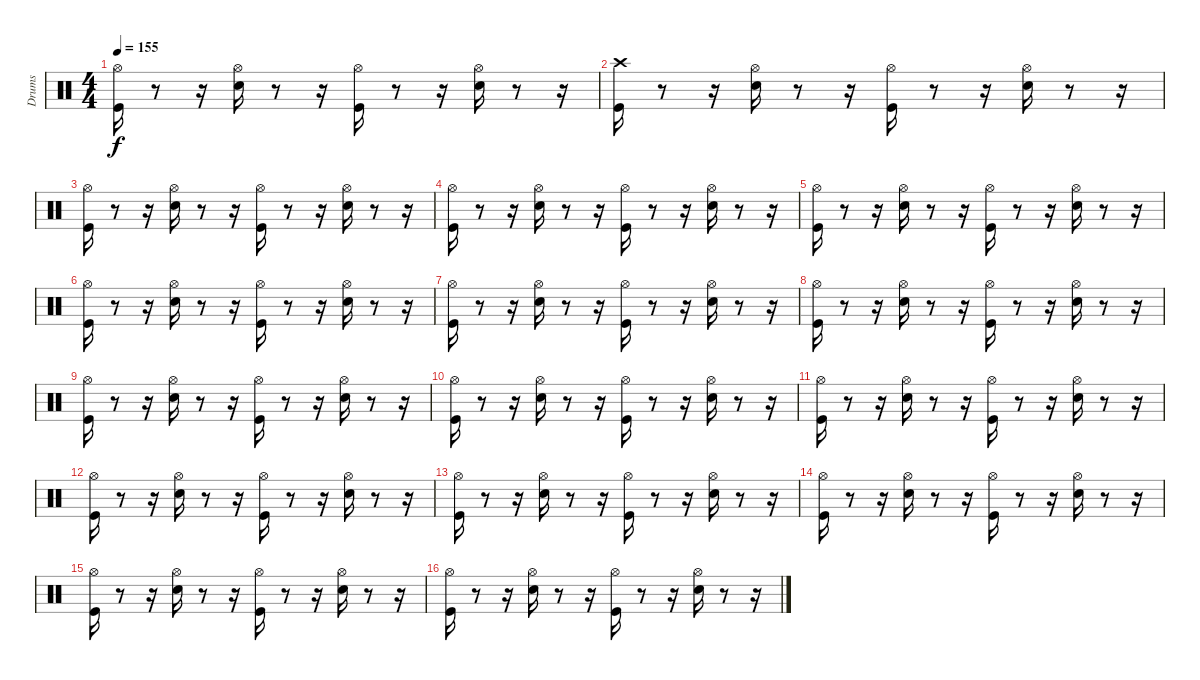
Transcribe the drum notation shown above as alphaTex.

\track ("Drums" "Drums") {instrument percussion}
\staff {score}
\articulation defaults
\ts (4 4)
\tempo 155
\clef neutral
\ks c
("Hi-Hat (open)" "Kick (hit)").16{dy f} r.8 r.16 ("Hi-Hat (open)" "Snare (hit) 2").16 r.8 r.16 ("Kick (hit)" "Hi-Hat (open)").16 r.8 r.16 ("Snare (hit) 2" "Hi-Hat (open)").16 r.8 r.16 |
("Crash high (hit)" "Kick (hit)").16 r.8 r.16 ("Hi-Hat (open)" "Snare (hit) 2").16 r.8 r.16 ("Kick (hit)" "Hi-Hat (open)").16 r.8 r.16 ("Snare (hit) 2" "Hi-Hat (open)").16 r.8 r.16 |
("Hi-Hat (open)" "Kick (hit)").16 r.8 r.16 ("Hi-Hat (open)" "Snare (hit) 2").16 r.8 r.16 ("Kick (hit)" "Hi-Hat (open)").16 r.8 r.16 ("Snare (hit) 2" "Hi-Hat (open)").16 r.8 r.16 |
("Hi-Hat (open)" "Kick (hit)").16 r.8 r.16 ("Hi-Hat (open)" "Snare (hit) 2").16 r.8 r.16 ("Kick (hit)" "Hi-Hat (open)").16 r.8 r.16 ("Snare (hit) 2" "Hi-Hat (open)").16 r.8 r.16 |
("Hi-Hat (open)" "Kick (hit)").16 r.8 r.16 ("Hi-Hat (open)" "Snare (hit) 2").16 r.8 r.16 ("Kick (hit)" "Hi-Hat (open)").16 r.8 r.16 ("Snare (hit) 2" "Hi-Hat (open)").16 r.8 r.16 |
("Hi-Hat (open)" "Kick (hit)").16 r.8 r.16 ("Hi-Hat (open)" "Snare (hit) 2").16 r.8 r.16 ("Kick (hit)" "Hi-Hat (open)").16 r.8 r.16 ("Snare (hit) 2" "Hi-Hat (open)").16 r.8 r.16 |
("Hi-Hat (open)" "Kick (hit)").16 r.8 r.16 ("Hi-Hat (open)" "Snare (hit) 2").16 r.8 r.16 ("Kick (hit)" "Hi-Hat (open)").16 r.8 r.16 ("Snare (hit) 2" "Hi-Hat (open)").16 r.8 r.16 |
("Hi-Hat (open)" "Kick (hit)").16 r.8 r.16 ("Hi-Hat (open)" "Snare (hit) 2").16 r.8 r.16 ("Kick (hit)" "Hi-Hat (open)").16 r.8 r.16 ("Snare (hit) 2" "Hi-Hat (open)").16 r.8 r.16 |
("Hi-Hat (open)" "Kick (hit)").16 r.8 r.16 ("Hi-Hat (open)" "Snare (hit) 2").16 r.8 r.16 ("Kick (hit)" "Hi-Hat (open)").16 r.8 r.16 ("Snare (hit) 2" "Hi-Hat (open)").16 r.8 r.16 |
("Hi-Hat (open)" "Kick (hit)").16 r.8 r.16 ("Hi-Hat (open)" "Snare (hit) 2").16 r.8 r.16 ("Kick (hit)" "Hi-Hat (open)").16 r.8 r.16 ("Snare (hit) 2" "Hi-Hat (open)").16 r.8 r.16 |
("Hi-Hat (open)" "Kick (hit)").16 r.8 r.16 ("Hi-Hat (open)" "Snare (hit) 2").16 r.8 r.16 ("Kick (hit)" "Hi-Hat (open)").16 r.8 r.16 ("Snare (hit) 2" "Hi-Hat (open)").16 r.8 r.16 |
("Hi-Hat (open)" "Kick (hit)").16 r.8 r.16 ("Hi-Hat (open)" "Snare (hit) 2").16 r.8 r.16 ("Kick (hit)" "Hi-Hat (open)").16 r.8 r.16 ("Snare (hit) 2" "Hi-Hat (open)").16 r.8 r.16 |
("Hi-Hat (open)" "Kick (hit)").16 r.8 r.16 ("Hi-Hat (open)" "Snare (hit) 2").16 r.8 r.16 ("Kick (hit)" "Hi-Hat (open)").16 r.8 r.16 ("Snare (hit) 2" "Hi-Hat (open)").16 r.8 r.16 |
("Hi-Hat (open)" "Kick (hit)").16 r.8 r.16 ("Hi-Hat (open)" "Snare (hit) 2").16 r.8 r.16 ("Kick (hit)" "Hi-Hat (open)").16 r.8 r.16 ("Snare (hit) 2" "Hi-Hat (open)").16 r.8 r.16 |
("Hi-Hat (open)" "Kick (hit)").16 r.8 r.16 ("Hi-Hat (open)" "Snare (hit) 2").16 r.8 r.16 ("Kick (hit)" "Hi-Hat (open)").16 r.8 r.16 ("Snare (hit) 2" "Hi-Hat (open)").16 r.8 r.16 |
("Hi-Hat (open)" "Kick (hit)").16 r.8 r.16 ("Hi-Hat (open)" "Snare (hit) 2").16 r.8 r.16 ("Kick (hit)" "Hi-Hat (open)").16 r.8 r.16 ("Snare (hit) 2" "Hi-Hat (open)").16 r.8 r.16
